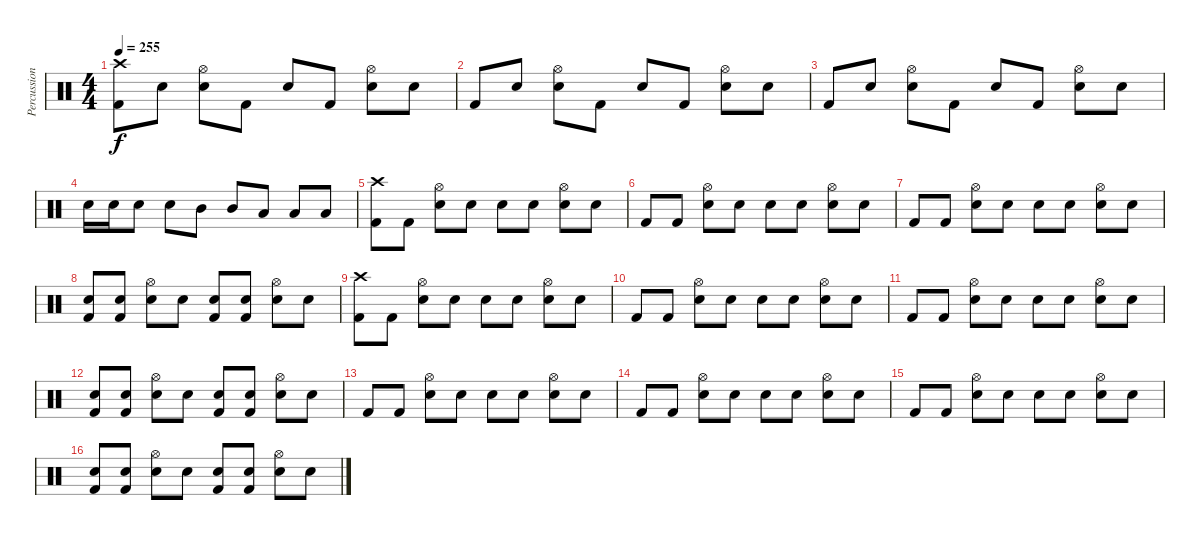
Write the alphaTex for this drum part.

\track ("Percussion" "Percussion") {instrument percussion}
\staff {score}
\articulation defaults
\ts (4 4)
\tempo 255
\clef neutral
\ks c
("Kick (hit) 2" "Crash high (hit)").8{dy f} "Snare (hit)"{x}.8 ("Snare (hit) 2" "Hi-Hat (open)").8 "Kick (hit) 2".8 "Snare (hit)"{x}.8 "Kick (hit) 2".8 ("Snare (hit) 2" "Hi-Hat (open)").8 "Snare (hit)"{x}.8 |
"Kick (hit) 2".8 "Snare (hit)"{x}.8 ("Snare (hit) 2" "Hi-Hat (open)").8 "Kick (hit) 2".8 "Snare (hit)"{x}.8 "Kick (hit) 2".8 ("Snare (hit) 2" "Hi-Hat (open)").8 "Snare (hit)"{x}.8 |
"Kick (hit) 2".8 "Snare (hit)"{x}.8 ("Snare (hit) 2" "Hi-Hat (open)").8 "Kick (hit) 2".8 "Snare (hit)"{x}.8 "Kick (hit) 2".8 ("Snare (hit) 2" "Hi-Hat (open)").8 "Snare (hit) 2".8 |
"Snare (hit) 2".16 "Snare (hit) 2".16 "Snare (hit) 2".8 "Snare (hit) 2".8 "Mid Tom (hit)".8 "Mid Tom (hit)".8 "Low Tom (hit)".8 "Low Tom (hit)".8 "Low Tom (hit)".8 |
("Kick (hit) 2" "Crash high (hit)").8 "Kick (hit) 2".8 ("Snare (hit) 2" "Hi-Hat (open)").8 "Snare (hit)"{x}.8 "Snare (hit)"{x}.8 "Snare (hit)"{x}.8 ("Snare (hit) 2" "Hi-Hat (open)").8 "Snare (hit)"{x}.8 |
"Kick (hit) 2".8 "Kick (hit) 2".8 ("Snare (hit) 2" "Hi-Hat (open)").8 "Snare (hit)"{x}.8 "Snare (hit)"{x}.8 "Snare (hit)"{x}.8 ("Snare (hit) 2" "Hi-Hat (open)").8 "Snare (hit)"{x}.8 |
"Kick (hit) 2".8 "Kick (hit) 2".8 ("Snare (hit) 2" "Hi-Hat (open)").8 "Snare (hit)"{x}.8 "Snare (hit)"{x}.8 "Snare (hit)"{x}.8 ("Snare (hit) 2" "Hi-Hat (open)").8 "Snare (hit)"{x}.8 |
("Kick (hit) 2" "Snare (hit)"{x}).8 ("Kick (hit) 2" "Snare (hit)"{x}).8 ("Snare (hit) 2" "Hi-Hat (open)").8 "Snare (hit)"{x}.8 ("Kick (hit) 2" "Snare (hit)"{x}).8 ("Kick (hit) 2" "Snare (hit)"{x}).8 ("Snare (hit) 2" "Hi-Hat (open)").8 "Snare (hit)"{x}.8 |
("Kick (hit) 2" "Crash high (hit)"{x}).8 "Kick (hit) 2".8 ("Snare (hit) 2" "Hi-Hat (open)").8 "Snare (hit)"{x}.8 "Snare (hit)"{x}.8 "Snare (hit)"{x}.8 ("Snare (hit) 2" "Hi-Hat (open)").8 "Snare (hit)"{x}.8 |
"Kick (hit) 2".8 "Kick (hit) 2".8 ("Snare (hit) 2" "Hi-Hat (open)").8 "Snare (hit)"{x}.8 "Snare (hit)"{x}.8 "Snare (hit)"{x}.8 ("Snare (hit) 2" "Hi-Hat (open)").8 "Snare (hit)"{x}.8 |
"Kick (hit) 2".8 "Kick (hit) 2".8 ("Snare (hit) 2" "Hi-Hat (open)").8 "Snare (hit)"{x}.8 "Snare (hit)"{x}.8 "Snare (hit)"{x}.8 ("Snare (hit) 2" "Hi-Hat (open)").8 "Snare (hit)"{x}.8 |
("Kick (hit) 2" "Snare (hit)"{x}).8 ("Kick (hit) 2" "Snare (hit)"{x}).8 ("Snare (hit) 2" "Hi-Hat (open)").8 "Snare (hit)"{x}.8 ("Kick (hit) 2" "Snare (hit)"{x}).8 ("Kick (hit) 2" "Snare (hit)"{x}).8 ("Snare (hit) 2" "Hi-Hat (open)").8 "Snare (hit)"{x}.8 |
"Kick (hit) 2".8 "Kick (hit) 2".8 ("Snare (hit) 2" "Hi-Hat (open)").8 "Snare (hit)"{x}.8 "Snare (hit)"{x}.8 "Snare (hit)"{x}.8 ("Snare (hit) 2" "Hi-Hat (open)").8 "Snare (hit)"{x}.8 |
"Kick (hit) 2".8 "Kick (hit) 2".8 ("Snare (hit) 2" "Hi-Hat (open)").8 "Snare (hit)"{x}.8 "Snare (hit)"{x}.8 "Snare (hit)"{x}.8 ("Snare (hit) 2" "Hi-Hat (open)").8 "Snare (hit)"{x}.8 |
"Kick (hit) 2".8 "Kick (hit) 2".8 ("Snare (hit) 2" "Hi-Hat (open)").8 "Snare (hit)"{x}.8 "Snare (hit)"{x}.8 "Snare (hit)"{x}.8 ("Snare (hit) 2" "Hi-Hat (open)").8 "Snare (hit)"{x}.8 |
("Kick (hit) 2" "Snare (hit)"{x}).8 ("Kick (hit) 2" "Snare (hit)"{x}).8 ("Snare (hit) 2" "Hi-Hat (open)").8 "Snare (hit)"{x}.8 ("Kick (hit) 2" "Snare (hit)"{x}).8 ("Kick (hit) 2" "Snare (hit)"{x}).8 ("Snare (hit) 2" "Hi-Hat (open)").8 "Snare (hit)"{x}.8
